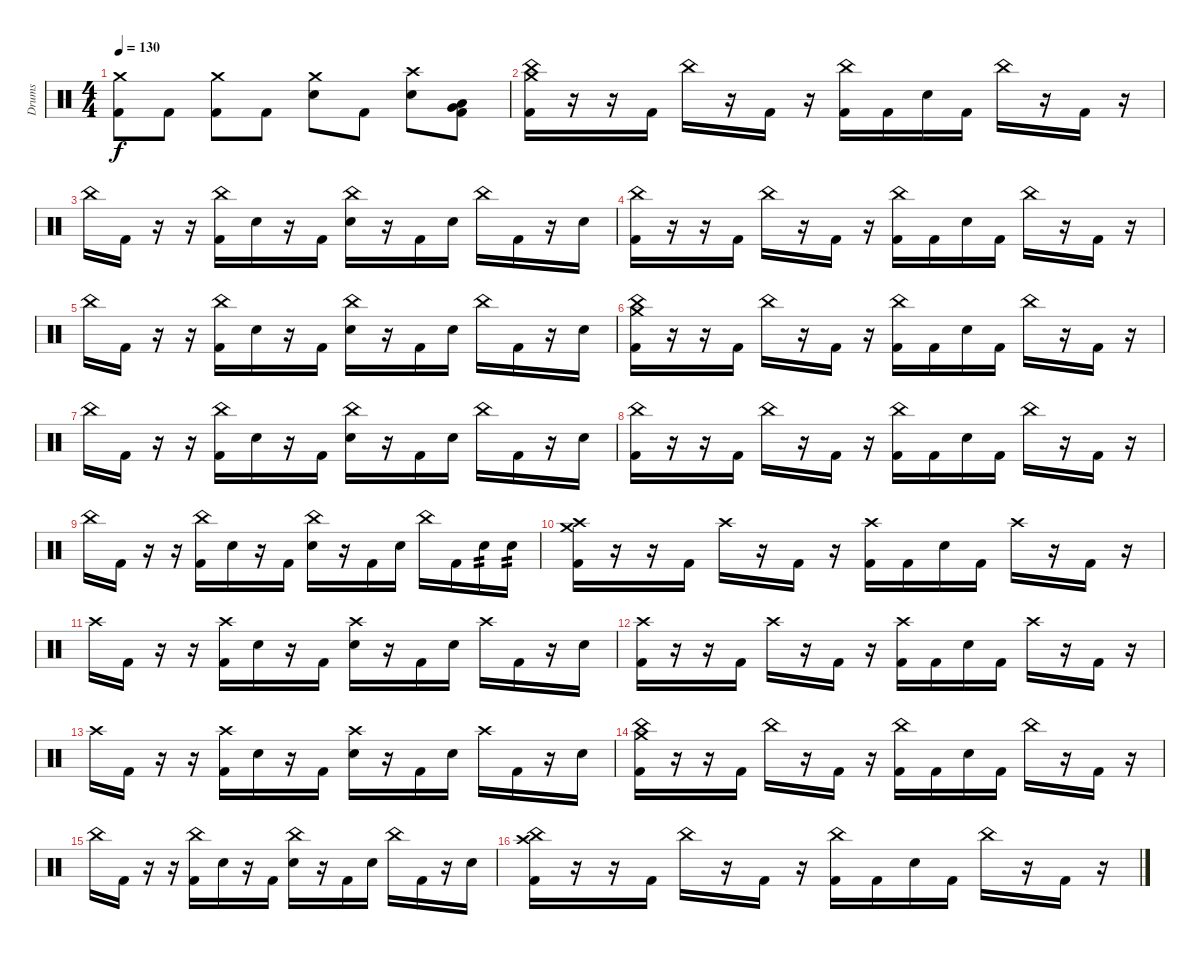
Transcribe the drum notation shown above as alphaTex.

\track ("Drums" "Drums") {instrument percussion}
\staff {score}
\articulation defaults
\ts (4 4)
\tempo 130
\clef neutral
\ks c
("Crash medium (hit)" "Kick (hit) 2").8{dy f} "Kick (hit) 2".8 ("Crash medium (hit)" "Kick (hit) 2").8 "Kick (hit) 2".8 ("Crash medium (hit)" "Snare (hit) 2").8 "Kick (hit) 2".8 ("Crash high (hit)" "Snare (hit) 2").8 ("Very Low Tom (hit)" "Low Floor Tom (hit)" "Kick (hit) 2").8 |
("China (hit)" "Crash medium (hit)" "Kick (hit) 2").16 r.16 r.16 "Kick (hit) 2".16 "China (hit)".16 r.16 "Kick (hit) 2".16 r.16 ("China (hit)" "Kick (hit) 2").16 "Kick (hit) 2".16 "Snare (hit) 2".16 "Kick (hit) 2".16 "China (hit)".16 r.16 "Kick (hit) 2".16 r.16 |
"China (hit)".16 "Kick (hit) 2".16 r.16 r.16 ("China (hit)" "Kick (hit) 2").16 "Snare (hit) 2".16 r.16 "Kick (hit) 2".16 ("China (hit)" "Snare (hit) 2").16 r.16 "Kick (hit) 2".16 "Snare (hit) 2".16 "China (hit)".16 "Kick (hit) 2".16 r.16 "Snare (hit) 2".16 |
("China (hit)" "Kick (hit) 2").16 r.16 r.16 "Kick (hit) 2".16 "China (hit)".16 r.16 "Kick (hit) 2".16 r.16 ("China (hit)" "Kick (hit) 2").16 "Kick (hit) 2".16 "Snare (hit) 2".16 "Kick (hit) 2".16 "China (hit)".16 r.16 "Kick (hit) 2".16 r.16 |
"China (hit)".16 "Kick (hit) 2".16 r.16 r.16 ("China (hit)" "Kick (hit) 2").16 "Snare (hit) 2".16 r.16 "Kick (hit) 2".16 ("China (hit)" "Snare (hit) 2").16 r.16 "Kick (hit) 2".16 "Snare (hit) 2".16 "China (hit)".16 "Kick (hit) 2".16 r.16 "Snare (hit) 2".16 |
("China (hit)" "Crash medium (hit)" "Kick (hit) 2").16 r.16 r.16 "Kick (hit) 2".16 "China (hit)".16 r.16 "Kick (hit) 2".16 r.16 ("China (hit)" "Kick (hit) 2").16 "Kick (hit) 2".16 "Snare (hit) 2".16 "Kick (hit) 2".16 "China (hit)".16 r.16 "Kick (hit) 2".16 r.16 |
"China (hit)".16 "Kick (hit) 2".16 r.16 r.16 ("China (hit)" "Kick (hit) 2").16 "Snare (hit) 2".16 r.16 "Kick (hit) 2".16 ("China (hit)" "Snare (hit) 2").16 r.16 "Kick (hit) 2".16 "Snare (hit) 2".16 "China (hit)".16 "Kick (hit) 2".16 r.16 "Snare (hit) 2".16 |
("China (hit)" "Kick (hit) 2").16 r.16 r.16 "Kick (hit) 2".16 "China (hit)".16 r.16 "Kick (hit) 2".16 r.16 ("China (hit)" "Kick (hit) 2").16 "Kick (hit) 2".16 "Snare (hit) 2".16 "Kick (hit) 2".16 "China (hit)".16 r.16 "Kick (hit) 2".16 r.16 |
"China (hit)".16 "Kick (hit) 2".16 r.16 r.16 ("China (hit)" "Kick (hit) 2").16 "Snare (hit) 2".16 r.16 "Kick (hit) 2".16 ("China (hit)" "Snare (hit) 2").16 r.16 "Kick (hit) 2".16 "Snare (hit) 2".16 "China (hit)".16 "Kick (hit) 2".16 "Snare (hit) 2".16{tp 2} "Snare (hit) 2".16{tp 2} |
("Crash high (hit)" "Crash medium (hit)" "Kick (hit) 2").16 r.16 r.16 "Kick (hit) 2".16 "Crash high (hit)".16 r.16 "Kick (hit) 2".16 r.16 ("Crash high (hit)" "Kick (hit) 2").16 "Kick (hit) 2".16 "Snare (hit) 2".16 "Kick (hit) 2".16 "Crash high (hit)".16 r.16 "Kick (hit) 2".16 r.16 |
"Crash high (hit)".16 "Kick (hit) 2".16 r.16 r.16 ("Crash high (hit)" "Kick (hit) 2").16 "Snare (hit) 2".16 r.16 "Kick (hit) 2".16 ("Crash high (hit)" "Snare (hit) 2").16 r.16 "Kick (hit) 2".16 "Snare (hit) 2".16 "Crash high (hit)".16 "Kick (hit) 2".16 r.16 "Snare (hit) 2".16 |
("Crash high (hit)" "Kick (hit) 2").16 r.16 r.16 "Kick (hit) 2".16 "Crash high (hit)".16 r.16 "Kick (hit) 2".16 r.16 ("Crash high (hit)" "Kick (hit) 2").16 "Kick (hit) 2".16 "Snare (hit) 2".16 "Kick (hit) 2".16 "Crash high (hit)".16 r.16 "Kick (hit) 2".16 r.16 |
"Crash high (hit)".16 "Kick (hit) 2".16 r.16 r.16 ("Crash high (hit)" "Kick (hit) 2").16 "Snare (hit) 2".16 r.16 "Kick (hit) 2".16 ("Crash high (hit)" "Snare (hit) 2").16 r.16 "Kick (hit) 2".16 "Snare (hit) 2".16 "Crash high (hit)".16 "Kick (hit) 2".16 r.16 "Snare (hit) 2".16 |
("China (hit)" "Crash medium (hit)" "Kick (hit) 2").16 r.16 r.16 "Kick (hit) 2".16 "China (hit)".16 r.16 "Kick (hit) 2".16 r.16 ("China (hit)" "Kick (hit) 2").16 "Kick (hit) 2".16 "Snare (hit) 2".16 "Kick (hit) 2".16 "China (hit)".16 r.16 "Kick (hit) 2".16 r.16 |
"China (hit)".16 "Kick (hit) 2".16 r.16 r.16 ("China (hit)" "Kick (hit) 2").16 "Snare (hit) 2".16 r.16 "Kick (hit) 2".16 ("China (hit)" "Snare (hit) 2").16 r.16 "Kick (hit) 2".16 "Snare (hit) 2".16 "China (hit)".16 "Kick (hit) 2".16 r.16 "Snare (hit) 2".16 |
("China (hit)" "Crash high (hit)" "Kick (hit) 2").16 r.16 r.16 "Kick (hit) 2".16 "China (hit)".16 r.16 "Kick (hit) 2".16 r.16 ("China (hit)" "Kick (hit) 2").16 "Kick (hit) 2".16 "Snare (hit) 2".16 "Kick (hit) 2".16 "China (hit)".16 r.16 "Kick (hit) 2".16 r.16
